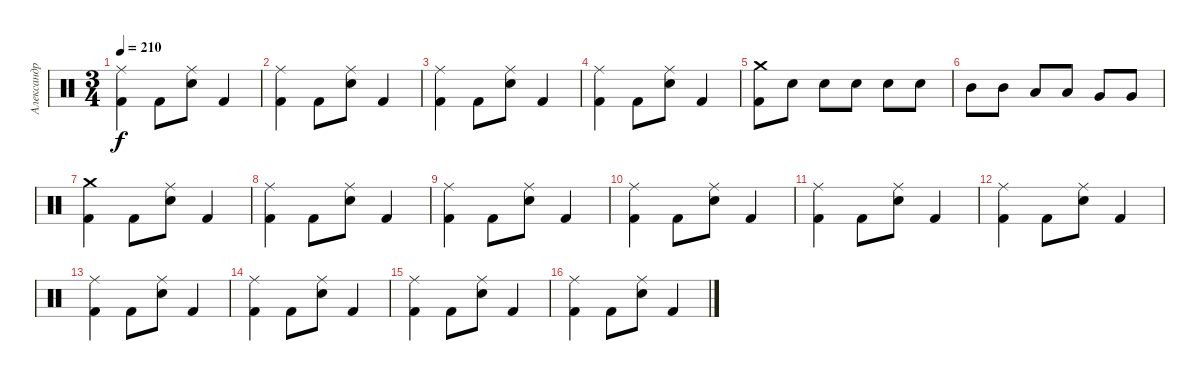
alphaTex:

\track ("Александр Манякин" "Александр ") {instrument percussion}
\staff {score}
\articulation defaults
\ts (3 4)
\tempo 210
\clef neutral
\ks c
("Ride (middle)" "Kick (hit) 2").4{dy f} "Kick (hit) 2".8 ("Ride (middle)" "Snare (hit) 2").8 "Kick (hit) 2".4 |
("Ride (middle)" "Kick (hit) 2").4 "Kick (hit) 2".8 ("Ride (middle)" "Snare (hit) 2").8 "Kick (hit) 2".4 |
("Ride (middle)" "Kick (hit) 2").4 "Kick (hit) 2".8 ("Ride (middle)" "Snare (hit) 2").8 "Kick (hit) 2".4 |
("Ride (middle)" "Kick (hit) 2").4 "Kick (hit) 2".8 ("Ride (middle)" "Snare (hit) 2").8 "Kick (hit) 2".4 |
("Crash medium (hit)" "Kick (hit) 2").8 "Snare (hit) 2".8 "Snare (hit) 2".8 "Snare (hit) 2".8 "Snare (hit) 2".8 "Snare (hit) 2".8 |
"Mid Tom (hit)".8 "Mid Tom (hit)".8 "Low Tom (hit)".8 "Low Tom (hit)".8 "Very Low Tom (hit)".8 "Very Low Tom (hit)".8 |
("Crash medium (hit)" "Kick (hit) 2").4 "Kick (hit) 2".8 ("Ride (middle)" "Snare (hit) 2").8 "Kick (hit) 2".4 |
("Ride (middle)" "Kick (hit) 2").4 "Kick (hit) 2".8 ("Ride (middle)" "Snare (hit) 2").8 "Kick (hit) 2".4 |
("Ride (middle)" "Kick (hit) 2").4 "Kick (hit) 2".8 ("Ride (middle)" "Snare (hit) 2").8 "Kick (hit) 2".4 |
("Ride (middle)" "Kick (hit) 2").4 "Kick (hit) 2".8 ("Ride (middle)" "Snare (hit) 2").8 "Kick (hit) 2".4 |
("Ride (middle)" "Kick (hit) 2").4 "Kick (hit) 2".8 ("Ride (middle)" "Snare (hit) 2").8 "Kick (hit) 2".4 |
("Ride (middle)" "Kick (hit) 2").4 "Kick (hit) 2".8 ("Ride (middle)" "Snare (hit) 2").8 "Kick (hit) 2".4 |
("Ride (middle)" "Kick (hit) 2").4 "Kick (hit) 2".8 ("Ride (middle)" "Snare (hit) 2").8 "Kick (hit) 2".4 |
("Ride (middle)" "Kick (hit) 2").4 "Kick (hit) 2".8 ("Ride (middle)" "Snare (hit) 2").8 "Kick (hit) 2".4 |
("Ride (middle)" "Kick (hit) 2").4 "Kick (hit) 2".8 ("Ride (middle)" "Snare (hit) 2").8 "Kick (hit) 2".4 |
("Ride (middle)" "Kick (hit) 2").4 "Kick (hit) 2".8 ("Ride (middle)" "Snare (hit) 2").8 "Kick (hit) 2".4
